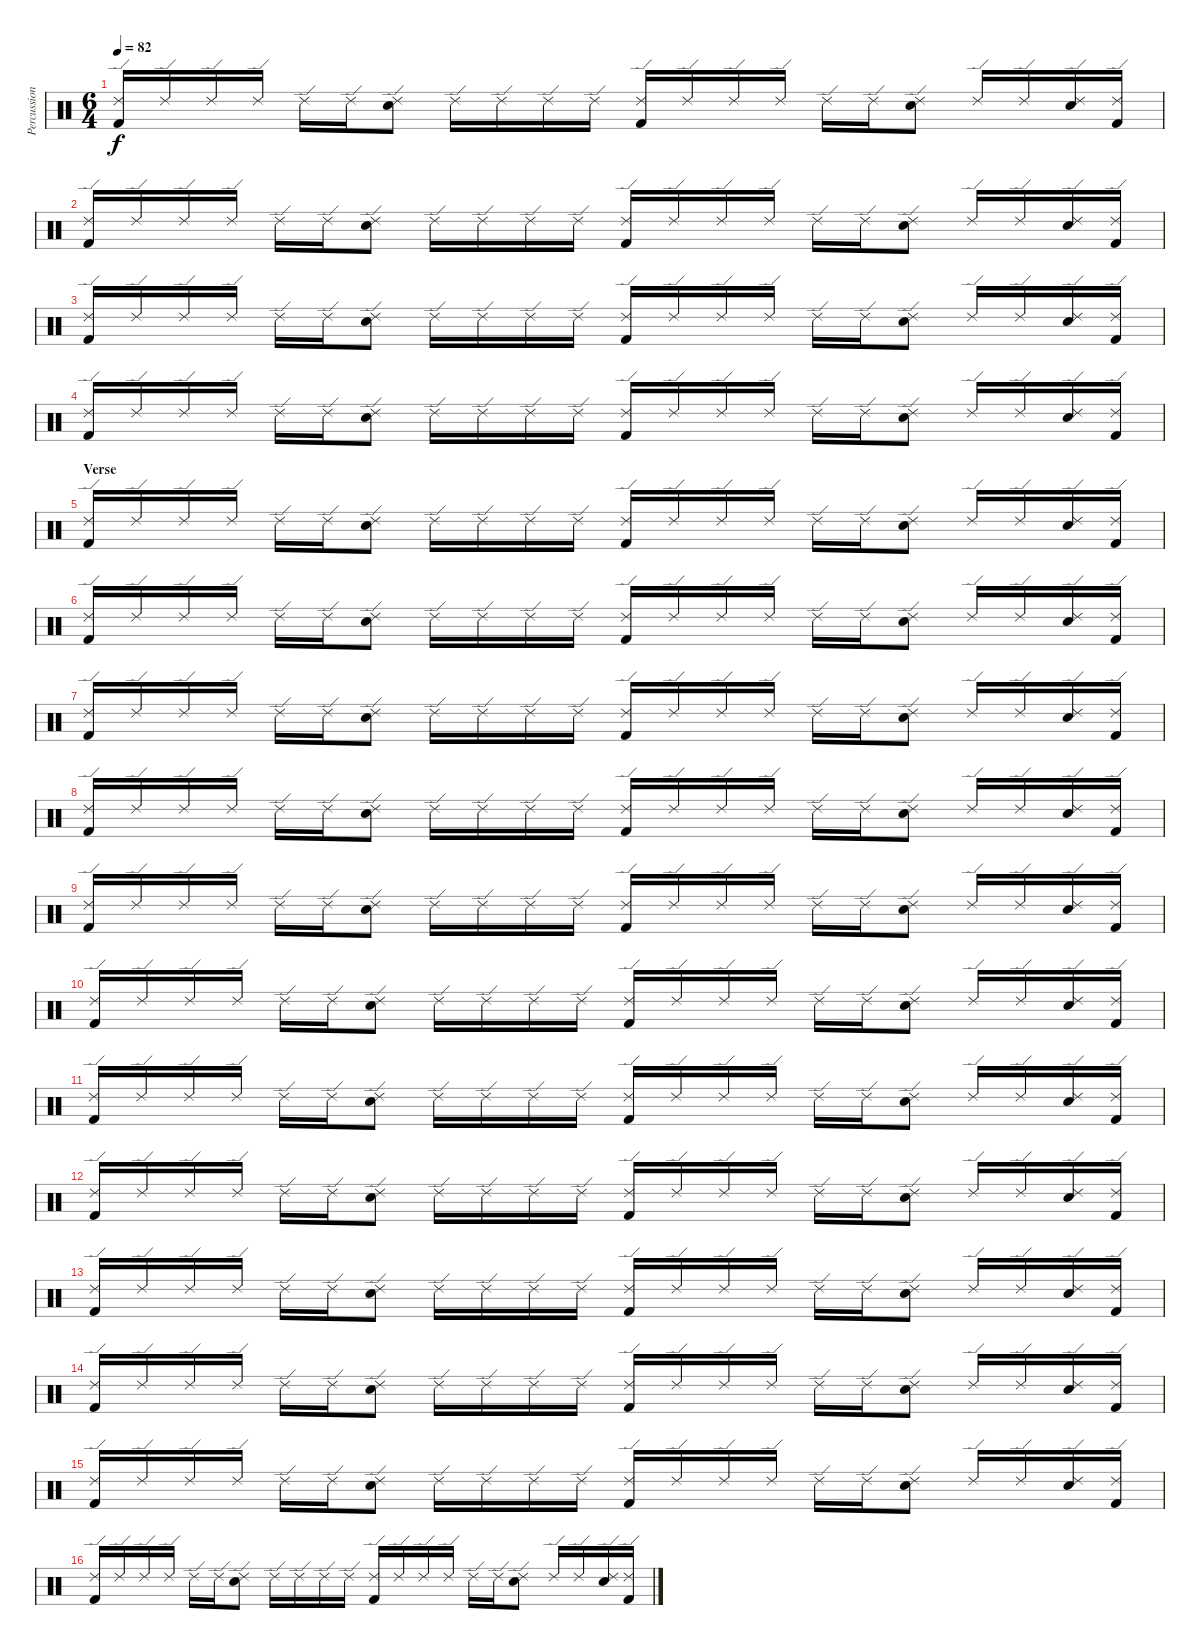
\track ("Percussion" "Percussion") {instrument percussion}
\staff {score}
\articulation defaults
\ts (6 4)
\tempo 82
\clef neutral
\ks c
("Ride (edge) 2" "Kick (hit) 2").16{dy f} "Ride (edge) 2".16 "Ride (edge) 2".16 "Ride (edge) 2".16 "Ride (edge) 2".16 "Ride (edge) 2".16 ("Ride (edge) 2" "Electric Snare (hit)").8 "Ride (edge) 2".16 "Ride (edge) 2".16 "Ride (edge) 2".16 "Ride (edge) 2".16 ("Ride (edge) 2" "Kick (hit) 2").16 "Ride (edge) 2".16 "Ride (edge) 2".16 "Ride (edge) 2".16 "Ride (edge) 2".16 "Ride (edge) 2".16 ("Ride (edge) 2" "Electric Snare (hit)").8 "Ride (edge) 2".16 "Ride (edge) 2".16 ("Ride (edge) 2" "Electric Snare (hit)").16 ("Ride (edge) 2" "Kick (hit) 2").16 |
("Ride (edge) 2" "Kick (hit) 2").16 "Ride (edge) 2".16 "Ride (edge) 2".16 "Ride (edge) 2".16 "Ride (edge) 2".16 "Ride (edge) 2".16 ("Ride (edge) 2" "Electric Snare (hit)").8 "Ride (edge) 2".16 "Ride (edge) 2".16 "Ride (edge) 2".16 "Ride (edge) 2".16 ("Ride (edge) 2" "Kick (hit) 2").16 "Ride (edge) 2".16 "Ride (edge) 2".16 "Ride (edge) 2".16 "Ride (edge) 2".16 "Ride (edge) 2".16 ("Ride (edge) 2" "Electric Snare (hit)").8 "Ride (edge) 2".16 "Ride (edge) 2".16 ("Ride (edge) 2" "Electric Snare (hit)").16 ("Ride (edge) 2" "Kick (hit) 2").16 |
("Ride (edge) 2" "Kick (hit) 2").16 "Ride (edge) 2".16 "Ride (edge) 2".16 "Ride (edge) 2".16 "Ride (edge) 2".16 "Ride (edge) 2".16 ("Ride (edge) 2" "Electric Snare (hit)").8 "Ride (edge) 2".16 "Ride (edge) 2".16 "Ride (edge) 2".16 "Ride (edge) 2".16 ("Ride (edge) 2" "Kick (hit) 2").16 "Ride (edge) 2".16 "Ride (edge) 2".16 "Ride (edge) 2".16 "Ride (edge) 2".16 "Ride (edge) 2".16 ("Ride (edge) 2" "Electric Snare (hit)").8 "Ride (edge) 2".16 "Ride (edge) 2".16 ("Ride (edge) 2" "Electric Snare (hit)").16 ("Ride (edge) 2" "Kick (hit) 2").16 |
("Ride (edge) 2" "Kick (hit) 2").16 "Ride (edge) 2".16 "Ride (edge) 2".16 "Ride (edge) 2".16 "Ride (edge) 2".16 "Ride (edge) 2".16 ("Ride (edge) 2" "Electric Snare (hit)").8 "Ride (edge) 2".16 "Ride (edge) 2".16 "Ride (edge) 2".16 "Ride (edge) 2".16 ("Ride (edge) 2" "Kick (hit) 2").16 "Ride (edge) 2".16 "Ride (edge) 2".16 "Ride (edge) 2".16 "Ride (edge) 2".16 "Ride (edge) 2".16 ("Ride (edge) 2" "Electric Snare (hit)").8 "Ride (edge) 2".16 "Ride (edge) 2".16 ("Ride (edge) 2" "Electric Snare (hit)").16 ("Ride (edge) 2" "Kick (hit) 2").16 |
\section ("" "Verse")
("Ride (edge) 2" "Kick (hit) 2").16 "Ride (edge) 2".16 "Ride (edge) 2".16 "Ride (edge) 2".16 "Ride (edge) 2".16 "Ride (edge) 2".16 ("Ride (edge) 2" "Electric Snare (hit)").8 "Ride (edge) 2".16 "Ride (edge) 2".16 "Ride (edge) 2".16 "Ride (edge) 2".16 ("Ride (edge) 2" "Kick (hit) 2").16 "Ride (edge) 2".16 "Ride (edge) 2".16 "Ride (edge) 2".16 "Ride (edge) 2".16 "Ride (edge) 2".16 ("Ride (edge) 2" "Electric Snare (hit)").8 "Ride (edge) 2".16 "Ride (edge) 2".16 ("Ride (edge) 2" "Electric Snare (hit)").16 ("Ride (edge) 2" "Kick (hit) 2").16 |
("Ride (edge) 2" "Kick (hit) 2").16 "Ride (edge) 2".16 "Ride (edge) 2".16 "Ride (edge) 2".16 "Ride (edge) 2".16 "Ride (edge) 2".16 ("Ride (edge) 2" "Electric Snare (hit)").8 "Ride (edge) 2".16 "Ride (edge) 2".16 "Ride (edge) 2".16 "Ride (edge) 2".16 ("Ride (edge) 2" "Kick (hit) 2").16 "Ride (edge) 2".16 "Ride (edge) 2".16 "Ride (edge) 2".16 "Ride (edge) 2".16 "Ride (edge) 2".16 ("Ride (edge) 2" "Electric Snare (hit)").8 "Ride (edge) 2".16 "Ride (edge) 2".16 ("Ride (edge) 2" "Electric Snare (hit)").16 ("Ride (edge) 2" "Kick (hit) 2").16 |
("Ride (edge) 2" "Kick (hit) 2").16 "Ride (edge) 2".16 "Ride (edge) 2".16 "Ride (edge) 2".16 "Ride (edge) 2".16 "Ride (edge) 2".16 ("Ride (edge) 2" "Electric Snare (hit)").8 "Ride (edge) 2".16 "Ride (edge) 2".16 "Ride (edge) 2".16 "Ride (edge) 2".16 ("Ride (edge) 2" "Kick (hit) 2").16 "Ride (edge) 2".16 "Ride (edge) 2".16 "Ride (edge) 2".16 "Ride (edge) 2".16 "Ride (edge) 2".16 ("Ride (edge) 2" "Electric Snare (hit)").8 "Ride (edge) 2".16 "Ride (edge) 2".16 ("Ride (edge) 2" "Electric Snare (hit)").16 ("Ride (edge) 2" "Kick (hit) 2").16 |
("Ride (edge) 2" "Kick (hit) 2").16 "Ride (edge) 2".16 "Ride (edge) 2".16 "Ride (edge) 2".16 "Ride (edge) 2".16 "Ride (edge) 2".16 ("Ride (edge) 2" "Electric Snare (hit)").8 "Ride (edge) 2".16 "Ride (edge) 2".16 "Ride (edge) 2".16 "Ride (edge) 2".16 ("Ride (edge) 2" "Kick (hit) 2").16 "Ride (edge) 2".16 "Ride (edge) 2".16 "Ride (edge) 2".16 "Ride (edge) 2".16 "Ride (edge) 2".16 ("Ride (edge) 2" "Electric Snare (hit)").8 "Ride (edge) 2".16 "Ride (edge) 2".16 ("Ride (edge) 2" "Electric Snare (hit)").16 ("Ride (edge) 2" "Kick (hit) 2").16 |
("Ride (edge) 2" "Kick (hit) 2").16 "Ride (edge) 2".16 "Ride (edge) 2".16 "Ride (edge) 2".16 "Ride (edge) 2".16 "Ride (edge) 2".16 ("Ride (edge) 2" "Electric Snare (hit)").8 "Ride (edge) 2".16 "Ride (edge) 2".16 "Ride (edge) 2".16 "Ride (edge) 2".16 ("Ride (edge) 2" "Kick (hit) 2").16 "Ride (edge) 2".16 "Ride (edge) 2".16 "Ride (edge) 2".16 "Ride (edge) 2".16 "Ride (edge) 2".16 ("Ride (edge) 2" "Electric Snare (hit)").8 "Ride (edge) 2".16 "Ride (edge) 2".16 ("Ride (edge) 2" "Electric Snare (hit)").16 ("Ride (edge) 2" "Kick (hit) 2").16 |
("Ride (edge) 2" "Kick (hit) 2").16 "Ride (edge) 2".16 "Ride (edge) 2".16 "Ride (edge) 2".16 "Ride (edge) 2".16 "Ride (edge) 2".16 ("Ride (edge) 2" "Electric Snare (hit)").8 "Ride (edge) 2".16 "Ride (edge) 2".16 "Ride (edge) 2".16 "Ride (edge) 2".16 ("Ride (edge) 2" "Kick (hit) 2").16 "Ride (edge) 2".16 "Ride (edge) 2".16 "Ride (edge) 2".16 "Ride (edge) 2".16 "Ride (edge) 2".16 ("Ride (edge) 2" "Electric Snare (hit)").8 "Ride (edge) 2".16 "Ride (edge) 2".16 ("Ride (edge) 2" "Electric Snare (hit)").16 ("Ride (edge) 2" "Kick (hit) 2").16 |
("Ride (edge) 2" "Kick (hit) 2").16 "Ride (edge) 2".16 "Ride (edge) 2".16 "Ride (edge) 2".16 "Ride (edge) 2".16 "Ride (edge) 2".16 ("Ride (edge) 2" "Electric Snare (hit)").8 "Ride (edge) 2".16 "Ride (edge) 2".16 "Ride (edge) 2".16 "Ride (edge) 2".16 ("Ride (edge) 2" "Kick (hit) 2").16 "Ride (edge) 2".16 "Ride (edge) 2".16 "Ride (edge) 2".16 "Ride (edge) 2".16 "Ride (edge) 2".16 ("Ride (edge) 2" "Electric Snare (hit)").8 "Ride (edge) 2".16 "Ride (edge) 2".16 ("Ride (edge) 2" "Electric Snare (hit)").16 ("Ride (edge) 2" "Kick (hit) 2").16 |
("Ride (edge) 2" "Kick (hit) 2").16 "Ride (edge) 2".16 "Ride (edge) 2".16 "Ride (edge) 2".16 "Ride (edge) 2".16 "Ride (edge) 2".16 ("Ride (edge) 2" "Electric Snare (hit)").8 "Ride (edge) 2".16 "Ride (edge) 2".16 "Ride (edge) 2".16 "Ride (edge) 2".16 ("Ride (edge) 2" "Kick (hit) 2").16 "Ride (edge) 2".16 "Ride (edge) 2".16 "Ride (edge) 2".16 "Ride (edge) 2".16 "Ride (edge) 2".16 ("Ride (edge) 2" "Electric Snare (hit)").8 "Ride (edge) 2".16 "Ride (edge) 2".16 ("Ride (edge) 2" "Electric Snare (hit)").16 ("Ride (edge) 2" "Kick (hit) 2").16 |
("Ride (edge) 2" "Kick (hit) 2").16 "Ride (edge) 2".16 "Ride (edge) 2".16 "Ride (edge) 2".16 "Ride (edge) 2".16 "Ride (edge) 2".16 ("Ride (edge) 2" "Electric Snare (hit)").8 "Ride (edge) 2".16 "Ride (edge) 2".16 "Ride (edge) 2".16 "Ride (edge) 2".16 ("Ride (edge) 2" "Kick (hit) 2").16 "Ride (edge) 2".16 "Ride (edge) 2".16 "Ride (edge) 2".16 "Ride (edge) 2".16 "Ride (edge) 2".16 ("Ride (edge) 2" "Electric Snare (hit)").8 "Ride (edge) 2".16 "Ride (edge) 2".16 ("Ride (edge) 2" "Electric Snare (hit)").16 ("Ride (edge) 2" "Kick (hit) 2").16 |
("Ride (edge) 2" "Kick (hit) 2").16 "Ride (edge) 2".16 "Ride (edge) 2".16 "Ride (edge) 2".16 "Ride (edge) 2".16 "Ride (edge) 2".16 ("Ride (edge) 2" "Electric Snare (hit)").8 "Ride (edge) 2".16 "Ride (edge) 2".16 "Ride (edge) 2".16 "Ride (edge) 2".16 ("Ride (edge) 2" "Kick (hit) 2").16 "Ride (edge) 2".16 "Ride (edge) 2".16 "Ride (edge) 2".16 "Ride (edge) 2".16 "Ride (edge) 2".16 ("Ride (edge) 2" "Electric Snare (hit)").8 "Ride (edge) 2".16 "Ride (edge) 2".16 ("Ride (edge) 2" "Electric Snare (hit)").16 ("Ride (edge) 2" "Kick (hit) 2").16 |
("Ride (edge) 2" "Kick (hit) 2").16 "Ride (edge) 2".16 "Ride (edge) 2".16 "Ride (edge) 2".16 "Ride (edge) 2".16 "Ride (edge) 2".16 ("Ride (edge) 2" "Electric Snare (hit)").8 "Ride (edge) 2".16 "Ride (edge) 2".16 "Ride (edge) 2".16 "Ride (edge) 2".16 ("Ride (edge) 2" "Kick (hit) 2").16 "Ride (edge) 2".16 "Ride (edge) 2".16 "Ride (edge) 2".16 "Ride (edge) 2".16 "Ride (edge) 2".16 ("Ride (edge) 2" "Electric Snare (hit)").8 "Ride (edge) 2".16 "Ride (edge) 2".16 ("Ride (edge) 2" "Electric Snare (hit)").16 ("Ride (edge) 2" "Kick (hit) 2").16 |
("Ride (edge) 2" "Kick (hit) 2").16 "Ride (edge) 2".16 "Ride (edge) 2".16 "Ride (edge) 2".16 "Ride (edge) 2".16 "Ride (edge) 2".16 ("Ride (edge) 2" "Electric Snare (hit)").8 "Ride (edge) 2".16 "Ride (edge) 2".16 "Ride (edge) 2".16 "Ride (edge) 2".16 ("Ride (edge) 2" "Kick (hit) 2").16 "Ride (edge) 2".16 "Ride (edge) 2".16 "Ride (edge) 2".16 "Ride (edge) 2".16 "Ride (edge) 2".16 ("Ride (edge) 2" "Electric Snare (hit)").8 "Ride (edge) 2".16 "Ride (edge) 2".16 ("Ride (edge) 2" "Electric Snare (hit)").16 ("Ride (edge) 2" "Kick (hit) 2").16
